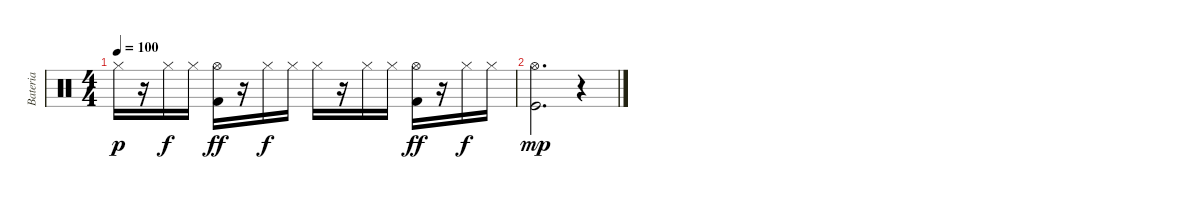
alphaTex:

\track ("Bateria" "Bateria") {solo instrument percussion}
\staff {score}
\articulation defaults
\ts (4 4)
\tempo 100
\clef neutral
\ks c "Hi-Hat (closed)".16{dy p}
r.16 "Hi-Hat (closed)".16{dy f} "Hi-Hat (closed)".16 ("Hi-Hat (open)" "Kick (hit) 2").16{dy ff} r.16 "Hi-Hat (closed)".16{dy f} "Hi-Hat (closed)".16 "Hi-Hat (closed)".16 r.16 "Hi-Hat (closed)".16 "Hi-Hat (closed)".16 ("Hi-Hat (open)" "Kick (hit) 2").16{dy ff} r.16 "Hi-Hat (closed)".16{dy f} "Hi-Hat (closed)".16 |
("Kick (hit)" "Hi-Hat (open)").2{d dy mp} r.4
